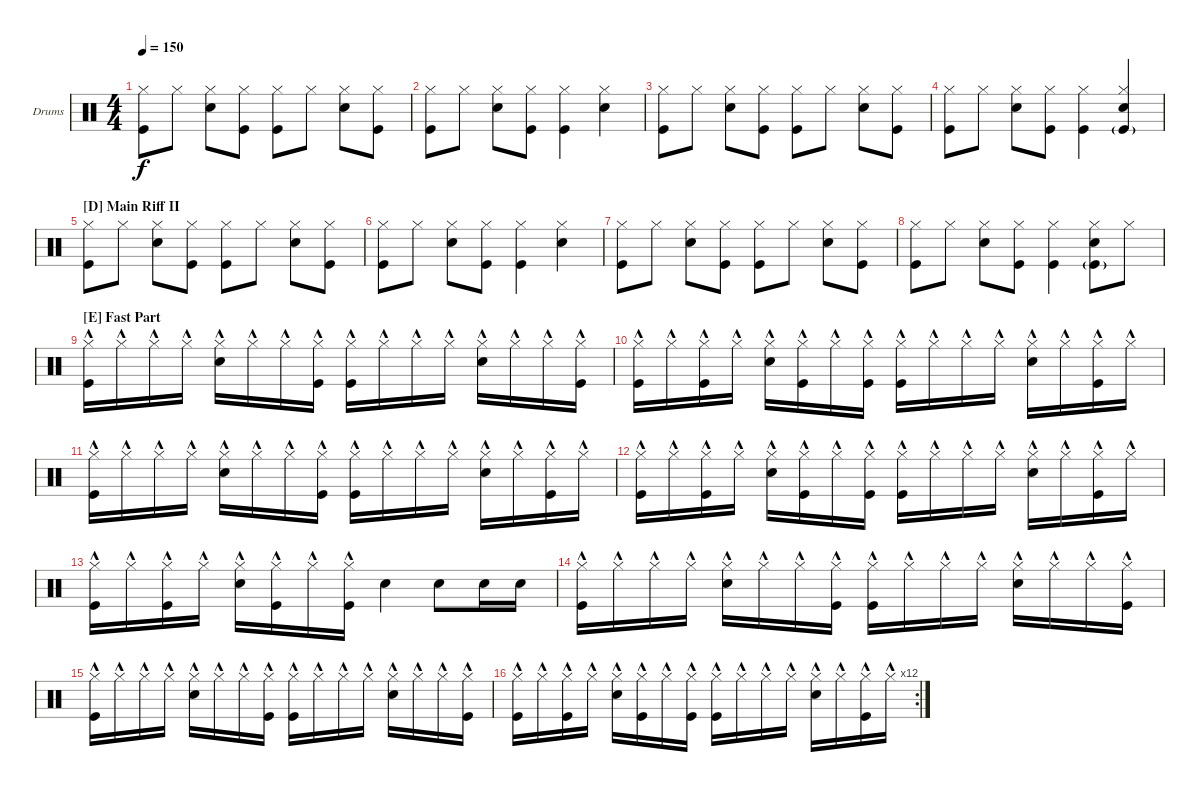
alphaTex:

\defaultSystemsLayout 4
\bracketExtendMode groupsimilarinstruments
\firstSystemTrackNameOrientation horizontal
\otherSystemsTrackNameOrientation horizontal
\track ("Drumkit" "Drums") {instrument percussion}
\staff {score}
\articulation defaults
\ts (4 4)
\tempo 150
\clef neutral
\ks c
("Kick (hit)" "Hi-Hat (closed)").8{dy f} "Hi-Hat (closed)".8 ("Hi-Hat (closed)" "Snare (hit) 2").8 ("Hi-Hat (closed)" "Kick (hit)").8 ("Hi-Hat (closed)" "Kick (hit)").8 "Hi-Hat (closed)".8 ("Hi-Hat (closed)" "Snare (hit) 2").8 ("Hi-Hat (closed)" "Kick (hit)").8 |
("Kick (hit)" "Hi-Hat (closed)").8 "Hi-Hat (closed)".8 ("Hi-Hat (closed)" "Snare (hit) 2").8 ("Hi-Hat (closed)" "Kick (hit)").8 ("Kick (hit)" "Hi-Hat (closed)").4 ("Hi-Hat (closed)" "Snare (hit) 2").4 |
("Kick (hit)" "Hi-Hat (closed)").8 "Hi-Hat (closed)".8 ("Hi-Hat (closed)" "Snare (hit) 2").8 ("Hi-Hat (closed)" "Kick (hit)").8 ("Hi-Hat (closed)" "Kick (hit)").8 "Hi-Hat (closed)".8 ("Hi-Hat (closed)" "Snare (hit) 2").8 ("Hi-Hat (closed)" "Kick (hit)").8 |
("Kick (hit)" "Hi-Hat (closed)").8 "Hi-Hat (closed)".8 ("Hi-Hat (closed)" "Snare (hit) 2").8 ("Hi-Hat (closed)" "Kick (hit)").8 ("Kick (hit)" "Hi-Hat (closed)").4 ("Kick (hit)"{g} "Hi-Hat (closed)" "Snare (hit) 2").4 |
\section ("D" "Main Riff II")
("Kick (hit)" "Hi-Hat (closed)").8 "Hi-Hat (closed)".8 ("Hi-Hat (closed)" "Snare (hit) 2").8 ("Hi-Hat (closed)" "Kick (hit)").8 ("Hi-Hat (closed)" "Kick (hit)").8 "Hi-Hat (closed)".8 ("Hi-Hat (closed)" "Snare (hit) 2").8 ("Hi-Hat (closed)" "Kick (hit)").8 |
("Kick (hit)" "Hi-Hat (closed)").8 "Hi-Hat (closed)".8 ("Hi-Hat (closed)" "Snare (hit) 2").8 ("Hi-Hat (closed)" "Kick (hit)").8 ("Kick (hit)" "Hi-Hat (closed)").4 ("Hi-Hat (closed)" "Snare (hit) 2").4 |
("Kick (hit)" "Hi-Hat (closed)").8 "Hi-Hat (closed)".8 ("Hi-Hat (closed)" "Snare (hit) 2").8 ("Hi-Hat (closed)" "Kick (hit)").8 ("Hi-Hat (closed)" "Kick (hit)").8 "Hi-Hat (closed)".8 ("Hi-Hat (closed)" "Snare (hit) 2").8 ("Hi-Hat (closed)" "Kick (hit)").8 |
("Kick (hit)" "Hi-Hat (closed)").8 "Hi-Hat (closed)".8 ("Hi-Hat (closed)" "Snare (hit) 2").8 ("Hi-Hat (closed)" "Kick (hit)").8 ("Kick (hit)" "Hi-Hat (closed)").4 ("Kick (hit)"{g} "Hi-Hat (closed)" "Snare (hit) 2").8 "Hi-Hat (closed)".8 |
\section ("E" "Fast Part")
("Kick (hit)" "Hi-Hat (closed)"{hac}).16 "Hi-Hat (closed)"{hac}.16 "Hi-Hat (closed)"{hac}.16 "Hi-Hat (closed)"{hac}.16 ("Hi-Hat (closed)"{hac} "Snare (hit) 2").16 "Hi-Hat (closed)"{hac}.16 "Hi-Hat (closed)"{hac}.16 ("Hi-Hat (closed)"{hac} "Kick (hit)").16 ("Hi-Hat (closed)"{hac} "Kick (hit)").16 "Hi-Hat (closed)"{hac}.16 "Hi-Hat (closed)"{hac}.16 "Hi-Hat (closed)"{hac}.16 ("Hi-Hat (closed)"{hac} "Snare (hit) 2").16 "Hi-Hat (closed)"{hac}.16 "Hi-Hat (closed)"{hac}.16 ("Hi-Hat (closed)"{hac} "Kick (hit)").16 |
("Kick (hit)" "Hi-Hat (closed)"{hac}).16 "Hi-Hat (closed)"{hac}.16 ("Hi-Hat (closed)"{hac} "Kick (hit)").16 "Hi-Hat (closed)"{hac}.16 ("Hi-Hat (closed)"{hac} "Snare (hit) 2").16 ("Hi-Hat (closed)"{hac} "Kick (hit)").16 "Hi-Hat (closed)"{hac}.16 ("Hi-Hat (closed)"{hac} "Kick (hit)").16 ("Hi-Hat (closed)"{hac} "Kick (hit)").16 "Hi-Hat (closed)"{hac}.16 "Hi-Hat (closed)"{hac}.16 "Hi-Hat (closed)"{hac}.16 ("Hi-Hat (closed)"{hac} "Snare (hit) 2").16 "Hi-Hat (closed)"{hac}.16 ("Hi-Hat (closed)"{hac} "Kick (hit)").16 "Hi-Hat (closed)"{hac}.16 |
("Kick (hit)" "Hi-Hat (closed)"{hac}).16 "Hi-Hat (closed)"{hac}.16 "Hi-Hat (closed)"{hac}.16 "Hi-Hat (closed)"{hac}.16 ("Hi-Hat (closed)"{hac} "Snare (hit) 2").16 "Hi-Hat (closed)"{hac}.16 "Hi-Hat (closed)"{hac}.16 ("Hi-Hat (closed)"{hac} "Kick (hit)").16 ("Hi-Hat (closed)"{hac} "Kick (hit)").16 "Hi-Hat (closed)"{hac}.16 "Hi-Hat (closed)"{hac}.16 "Hi-Hat (closed)"{hac}.16 ("Hi-Hat (closed)"{hac} "Snare (hit) 2").16 "Hi-Hat (closed)"{hac}.16 ("Hi-Hat (closed)"{hac} "Kick (hit)").16 "Hi-Hat (closed)"{hac}.16 |
("Kick (hit)" "Hi-Hat (closed)"{hac}).16 "Hi-Hat (closed)"{hac}.16 ("Hi-Hat (closed)"{hac} "Kick (hit)").16 "Hi-Hat (closed)"{hac}.16 ("Hi-Hat (closed)"{hac} "Snare (hit) 2").16 ("Hi-Hat (closed)"{hac} "Kick (hit)").16 "Hi-Hat (closed)"{hac}.16 ("Hi-Hat (closed)"{hac} "Kick (hit)").16 ("Hi-Hat (closed)"{hac} "Kick (hit)").16 "Hi-Hat (closed)"{hac}.16 "Hi-Hat (closed)"{hac}.16 "Hi-Hat (closed)"{hac}.16 ("Hi-Hat (closed)"{hac} "Snare (hit) 2").16 "Hi-Hat (closed)"{hac}.16 ("Hi-Hat (closed)"{hac} "Kick (hit)").16 "Hi-Hat (closed)"{hac}.16 |
("Kick (hit)" "Hi-Hat (closed)"{hac}).16 "Hi-Hat (closed)"{hac}.16 ("Hi-Hat (closed)"{hac} "Kick (hit)").16 "Hi-Hat (closed)"{hac}.16 ("Hi-Hat (closed)"{hac} "Snare (hit) 2").16 ("Hi-Hat (closed)"{hac} "Kick (hit)").16 "Hi-Hat (closed)"{hac}.16 ("Hi-Hat (closed)"{hac} "Kick (hit)").16 "Snare (hit) 2".4 "Snare (hit) 2".8 "Snare (hit) 2".16 "Snare (hit) 2".16 |
("Kick (hit)" "Hi-Hat (closed)"{hac}).16 "Hi-Hat (closed)"{hac}.16 "Hi-Hat (closed)"{hac}.16 "Hi-Hat (closed)"{hac}.16 ("Hi-Hat (closed)"{hac} "Snare (hit) 2").16 "Hi-Hat (closed)"{hac}.16 "Hi-Hat (closed)"{hac}.16 ("Hi-Hat (closed)"{hac} "Kick (hit)").16 ("Hi-Hat (closed)"{hac} "Kick (hit)").16 "Hi-Hat (closed)"{hac}.16 "Hi-Hat (closed)"{hac}.16 "Hi-Hat (closed)"{hac}.16 ("Hi-Hat (closed)"{hac} "Snare (hit) 2").16 "Hi-Hat (closed)"{hac}.16 "Hi-Hat (closed)"{hac}.16 ("Hi-Hat (closed)"{hac} "Kick (hit)").16 |
("Kick (hit)" "Hi-Hat (closed)"{hac}).16 "Hi-Hat (closed)"{hac}.16 "Hi-Hat (closed)"{hac}.16 "Hi-Hat (closed)"{hac}.16 ("Hi-Hat (closed)"{hac} "Snare (hit) 2").16 "Hi-Hat (closed)"{hac}.16 "Hi-Hat (closed)"{hac}.16 ("Hi-Hat (closed)"{hac} "Kick (hit)").16 ("Hi-Hat (closed)"{hac} "Kick (hit)").16 "Hi-Hat (closed)"{hac}.16 "Hi-Hat (closed)"{hac}.16 "Hi-Hat (closed)"{hac}.16 ("Hi-Hat (closed)"{hac} "Snare (hit) 2").16 "Hi-Hat (closed)"{hac}.16 "Hi-Hat (closed)"{hac}.16 ("Hi-Hat (closed)"{hac} "Kick (hit)").16 |
\rc 12
("Kick (hit)" "Hi-Hat (closed)"{hac}).16 "Hi-Hat (closed)"{hac}.16 ("Hi-Hat (closed)"{hac} "Kick (hit)").16 "Hi-Hat (closed)"{hac}.16 ("Hi-Hat (closed)"{hac} "Snare (hit) 2").16 ("Hi-Hat (closed)"{hac} "Kick (hit)").16 "Hi-Hat (closed)"{hac}.16 ("Hi-Hat (closed)"{hac} "Kick (hit)").16 ("Hi-Hat (closed)"{hac} "Kick (hit)").16 "Hi-Hat (closed)"{hac}.16 "Hi-Hat (closed)"{hac}.16 "Hi-Hat (closed)"{hac}.16 ("Hi-Hat (closed)"{hac} "Snare (hit) 2").16 "Hi-Hat (closed)"{hac}.16 ("Hi-Hat (closed)"{hac} "Kick (hit)").16 "Hi-Hat (closed)"{hac}.16
